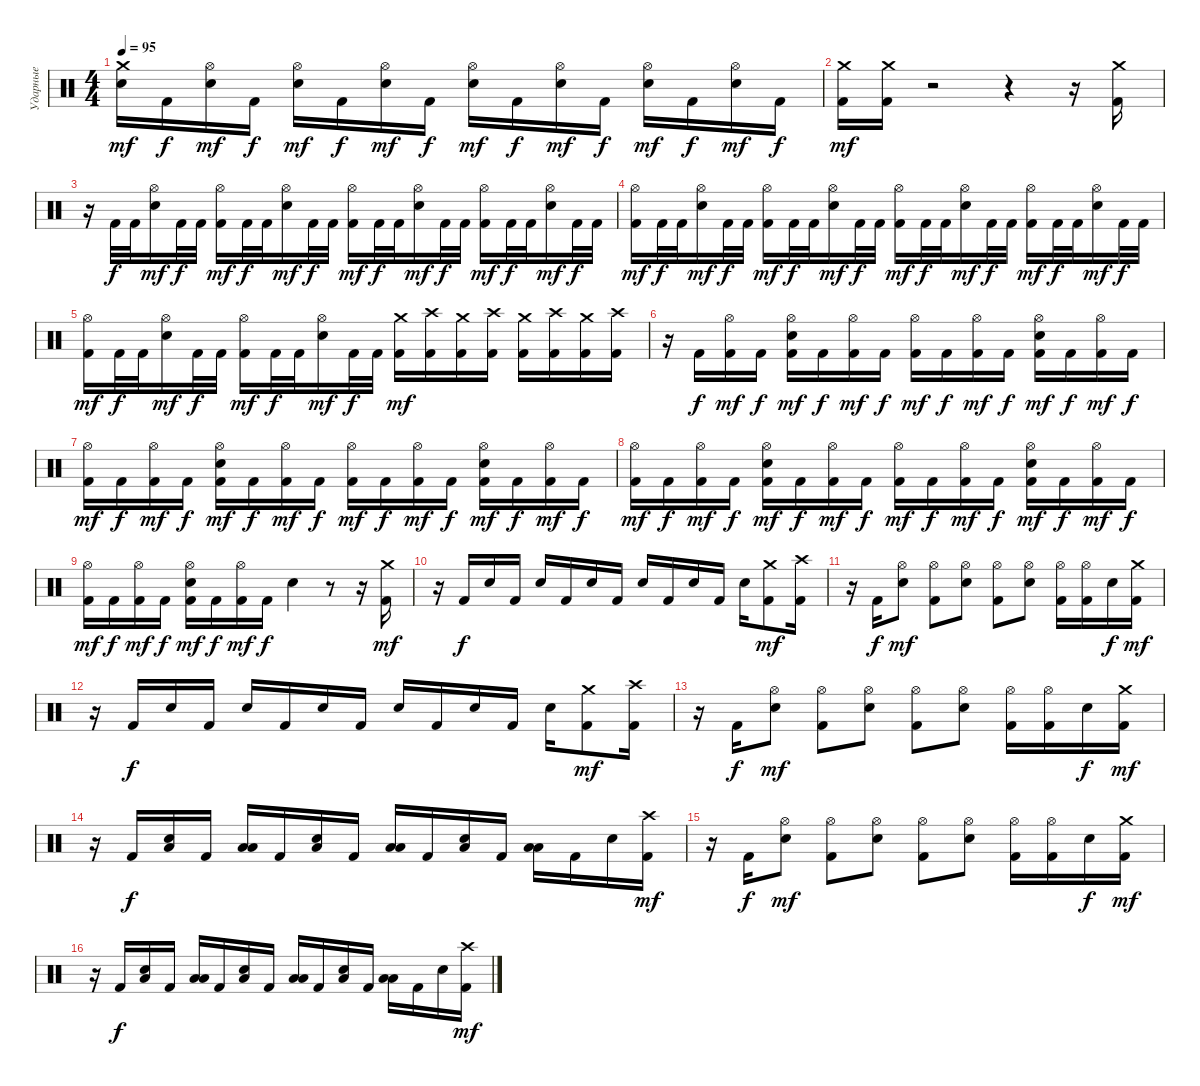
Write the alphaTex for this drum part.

\track ("Ударные" "Ударные") {instrument percussion}
\staff {score}
\articulation defaults
\ts (4 4)
\tempo 95
\clef neutral
\ks c
("Crash medium (hit)" "Snare (hit) 2").16{dy mf} "Kick (hit) 2".16{dy f} ("Hi-Hat (open)" "Snare (hit) 2").16{dy mf} "Kick (hit) 2".16{dy f} ("Hi-Hat (open)" "Snare (hit) 2").16{dy mf} "Kick (hit) 2".16{dy f} ("Hi-Hat (open)" "Snare (hit) 2").16{dy mf} "Kick (hit) 2".16{dy f} ("Hi-Hat (open)" "Snare (hit) 2").16{dy mf} "Kick (hit) 2".16{dy f} ("Hi-Hat (open)" "Snare (hit) 2").16{dy mf} "Kick (hit) 2".16{dy f} ("Hi-Hat (open)" "Snare (hit) 2").16{dy mf} "Kick (hit) 2".16{dy f} ("Hi-Hat (open)" "Snare (hit) 2").16{dy mf} "Kick (hit) 2".16{dy f} |
("Crash medium (hit)" "Kick (hit) 2").16{dy mf} ("Crash medium (hit)" "Kick (hit) 2").16 r.2 r.4 r.16 ("Crash medium (hit)" "Kick (hit) 2").16 |
r.16 "Kick (hit) 2".32{dy f} "Kick (hit) 2".32 ("Hi-Hat (open)" "Snare (hit) 2").16{dy mf} "Kick (hit) 2".32{dy f} "Kick (hit) 2".32 ("Hi-Hat (open)" "Kick (hit) 2").16{dy mf} "Kick (hit) 2".32{dy f} "Kick (hit) 2".32 ("Hi-Hat (open)" "Snare (hit) 2").16{dy mf} "Kick (hit) 2".32{dy f} "Kick (hit) 2".32 ("Hi-Hat (open)" "Kick (hit) 2").16{dy mf} "Kick (hit) 2".32{dy f} "Kick (hit) 2".32 ("Hi-Hat (open)" "Snare (hit) 2").16{dy mf} "Kick (hit) 2".32{dy f} "Kick (hit) 2".32 ("Hi-Hat (open)" "Kick (hit) 2").16{dy mf} "Kick (hit) 2".32{dy f} "Kick (hit) 2".32 ("Hi-Hat (open)" "Snare (hit) 2").16{dy mf} "Kick (hit) 2".32{dy f} "Kick (hit) 2".32 |
("Hi-Hat (open)" "Kick (hit) 2").16{dy mf} "Kick (hit) 2".32{dy f} "Kick (hit) 2".32 ("Hi-Hat (open)" "Snare (hit) 2").16{dy mf} "Kick (hit) 2".32{dy f} "Kick (hit) 2".32 ("Hi-Hat (open)" "Kick (hit) 2").16{dy mf} "Kick (hit) 2".32{dy f} "Kick (hit) 2".32 ("Hi-Hat (open)" "Snare (hit) 2").16{dy mf} "Kick (hit) 2".32{dy f} "Kick (hit) 2".32 ("Hi-Hat (open)" "Kick (hit) 2").16{dy mf} "Kick (hit) 2".32{dy f} "Kick (hit) 2".32 ("Hi-Hat (open)" "Snare (hit) 2").16{dy mf} "Kick (hit) 2".32{dy f} "Kick (hit) 2".32 ("Hi-Hat (open)" "Kick (hit) 2").16{dy mf} "Kick (hit) 2".32{dy f} "Kick (hit) 2".32 ("Hi-Hat (open)" "Snare (hit) 2").16{dy mf} "Kick (hit) 2".32{dy f} "Kick (hit) 2".32 |
("Hi-Hat (open)" "Kick (hit) 2").16{dy mf} "Kick (hit) 2".32{dy f} "Kick (hit) 2".32 ("Hi-Hat (open)" "Snare (hit) 2").16{dy mf} "Kick (hit) 2".32{dy f} "Kick (hit) 2".32 ("Hi-Hat (open)" "Kick (hit) 2").16{dy mf} "Kick (hit) 2".32{dy f} "Kick (hit) 2".32 ("Hi-Hat (open)" "Snare (hit) 2").16{dy mf} "Kick (hit) 2".32{dy f} "Kick (hit) 2".32 ("Crash medium (hit)" "Kick (hit) 2").16{dy mf} ("Crash high (hit)" "Kick (hit) 2").16 ("Crash medium (hit)" "Kick (hit) 2").16 ("Crash high (hit)" "Kick (hit) 2").16 ("Crash medium (hit)" "Kick (hit) 2").16 ("Crash high (hit)" "Kick (hit) 2").16 ("Crash medium (hit)" "Kick (hit) 2").16 ("Crash high (hit)" "Kick (hit) 2").16 |
r.16 "Kick (hit) 2".16{dy f} ("Hi-Hat (open)" "Kick (hit) 2").16{dy mf} "Kick (hit) 2".16{dy f} ("Hi-Hat (open)" "Kick (hit) 2" "Snare (hit) 2").16{dy mf} "Kick (hit) 2".16{dy f} ("Hi-Hat (open)" "Kick (hit) 2").16{dy mf} "Kick (hit) 2".16{dy f} ("Hi-Hat (open)" "Kick (hit) 2").16{dy mf} "Kick (hit) 2".16{dy f} ("Hi-Hat (open)" "Kick (hit) 2").16{dy mf} "Kick (hit) 2".16{dy f} ("Hi-Hat (open)" "Kick (hit) 2" "Snare (hit) 2").16{dy mf} "Kick (hit) 2".16{dy f} ("Hi-Hat (open)" "Kick (hit) 2").16{dy mf} "Kick (hit) 2".16{dy f} |
("Hi-Hat (open)" "Kick (hit) 2").16{dy mf} "Kick (hit) 2".16{dy f} ("Hi-Hat (open)" "Kick (hit) 2").16{dy mf} "Kick (hit) 2".16{dy f} ("Hi-Hat (open)" "Kick (hit) 2" "Snare (hit) 2").16{dy mf} "Kick (hit) 2".16{dy f} ("Hi-Hat (open)" "Kick (hit) 2").16{dy mf} "Kick (hit) 2".16{dy f} ("Hi-Hat (open)" "Kick (hit) 2").16{dy mf} "Kick (hit) 2".16{dy f} ("Hi-Hat (open)" "Kick (hit) 2").16{dy mf} "Kick (hit) 2".16{dy f} ("Hi-Hat (open)" "Kick (hit) 2" "Snare (hit) 2").16{dy mf} "Kick (hit) 2".16{dy f} ("Hi-Hat (open)" "Kick (hit) 2").16{dy mf} "Kick (hit) 2".16{dy f} |
("Hi-Hat (open)" "Kick (hit) 2").16{dy mf} "Kick (hit) 2".16{dy f} ("Hi-Hat (open)" "Kick (hit) 2").16{dy mf} "Kick (hit) 2".16{dy f} ("Hi-Hat (open)" "Kick (hit) 2" "Snare (hit) 2").16{dy mf} "Kick (hit) 2".16{dy f} ("Hi-Hat (open)" "Kick (hit) 2").16{dy mf} "Kick (hit) 2".16{dy f} ("Hi-Hat (open)" "Kick (hit) 2").16{dy mf} "Kick (hit) 2".16{dy f} ("Hi-Hat (open)" "Kick (hit) 2").16{dy mf} "Kick (hit) 2".16{dy f} ("Hi-Hat (open)" "Kick (hit) 2" "Snare (hit) 2").16{dy mf} "Kick (hit) 2".16{dy f} ("Hi-Hat (open)" "Kick (hit) 2").16{dy mf} "Kick (hit) 2".16{dy f} |
("Hi-Hat (open)" "Kick (hit) 2").16{dy mf} "Kick (hit) 2".16{dy f} ("Hi-Hat (open)" "Kick (hit) 2").16{dy mf} "Kick (hit) 2".16{dy f} ("Hi-Hat (open)" "Kick (hit) 2" "Snare (hit) 2").16{dy mf} "Kick (hit) 2".16{dy f} ("Hi-Hat (open)" "Kick (hit) 2").16{dy mf} "Kick (hit) 2".16{dy f} "Snare (hit) 2".4 r.8 r.16 ("Crash medium (hit)" "Kick (hit) 2").16{dy mf} |
r.16 "Kick (hit) 2".16{dy f} "Snare (hit) 2".16 "Kick (hit) 2".16 "Snare (hit) 2".16 "Kick (hit) 2".16 "Snare (hit) 2".16 "Kick (hit) 2".16 "Snare (hit) 2".16 "Kick (hit) 2".16 "Snare (hit) 2".16 "Kick (hit) 2".16 "Snare (hit) 2".16 ("Crash medium (hit)" "Kick (hit) 2").8{dy mf} ("Crash high (hit)" "Kick (hit) 2").16 |
r.16 "Kick (hit) 2".16{dy f} ("Hi-Hat (open)" "Snare (hit) 2").8{dy mf} ("Hi-Hat (open)" "Kick (hit) 2").8 ("Hi-Hat (open)" "Snare (hit) 2").8 ("Hi-Hat (open)" "Kick (hit) 2").8 ("Hi-Hat (open)" "Snare (hit) 2").8 ("Hi-Hat (open)" "Kick (hit) 2").16 ("Hi-Hat (open)" "Kick (hit) 2").16 "Snare (hit) 2".16{dy f} ("Crash medium (hit)" "Kick (hit) 2").16{dy mf} |
r.16 "Kick (hit) 2".16{dy f} "Snare (hit) 2".16 "Kick (hit) 2".16 "Snare (hit) 2".16 "Kick (hit) 2".16 "Snare (hit) 2".16 "Kick (hit) 2".16 "Snare (hit) 2".16 "Kick (hit) 2".16 "Snare (hit) 2".16 "Kick (hit) 2".16 "Snare (hit) 2".16 ("Crash medium (hit)" "Kick (hit) 2").8{dy mf} ("Crash high (hit)" "Kick (hit) 2").16 |
r.16 "Kick (hit) 2".16{dy f} ("Hi-Hat (open)" "Snare (hit) 2").8{dy mf} ("Hi-Hat (open)" "Kick (hit) 2").8 ("Hi-Hat (open)" "Snare (hit) 2").8 ("Hi-Hat (open)" "Kick (hit) 2").8 ("Hi-Hat (open)" "Snare (hit) 2").8 ("Hi-Hat (open)" "Kick (hit) 2").16 ("Hi-Hat (open)" "Kick (hit) 2").16 "Snare (hit) 2".16{dy f} ("Crash medium (hit)" "Kick (hit) 2").16{dy mf} |
r.16 "Kick (hit) 2".16{dy f} ("Snare (hit) 2" "Low Floor Tom (hit)").16 "Kick (hit) 2".16 ("Low Tom (hit)" "Low Floor Tom (hit)").16 "Kick (hit) 2".16 ("Snare (hit) 2" "Low Floor Tom (hit)").16 "Kick (hit) 2".16 ("Low Tom (hit)" "Low Floor Tom (hit)").16 "Kick (hit) 2".16 ("Snare (hit) 2" "Low Floor Tom (hit)").16 "Kick (hit) 2".16 ("Low Tom (hit)" "Low Floor Tom (hit)").16 "Kick (hit) 2".16 "Snare (hit) 2".16 ("Crash high (hit)" "Kick (hit) 2").16{dy mf} |
r.16 "Kick (hit) 2".16{dy f} ("Hi-Hat (open)" "Snare (hit) 2").8{dy mf} ("Hi-Hat (open)" "Kick (hit) 2").8 ("Hi-Hat (open)" "Snare (hit) 2").8 ("Hi-Hat (open)" "Kick (hit) 2").8 ("Hi-Hat (open)" "Snare (hit) 2").8 ("Hi-Hat (open)" "Kick (hit) 2").16 ("Hi-Hat (open)" "Kick (hit) 2").16 "Snare (hit) 2".16{dy f} ("Crash medium (hit)" "Kick (hit) 2").16{dy mf} |
r.16 "Kick (hit) 2".16{dy f} ("Snare (hit) 2" "Low Floor Tom (hit)").16 "Kick (hit) 2".16 ("Low Tom (hit)" "Low Floor Tom (hit)").16 "Kick (hit) 2".16 ("Snare (hit) 2" "Low Floor Tom (hit)").16 "Kick (hit) 2".16 ("Low Tom (hit)" "Low Floor Tom (hit)").16 "Kick (hit) 2".16 ("Snare (hit) 2" "Low Floor Tom (hit)").16 "Kick (hit) 2".16 ("Low Tom (hit)" "Low Floor Tom (hit)").16 "Kick (hit) 2".16 "Snare (hit) 2".16 ("Crash high (hit)" "Kick (hit) 2").16{dy mf}
